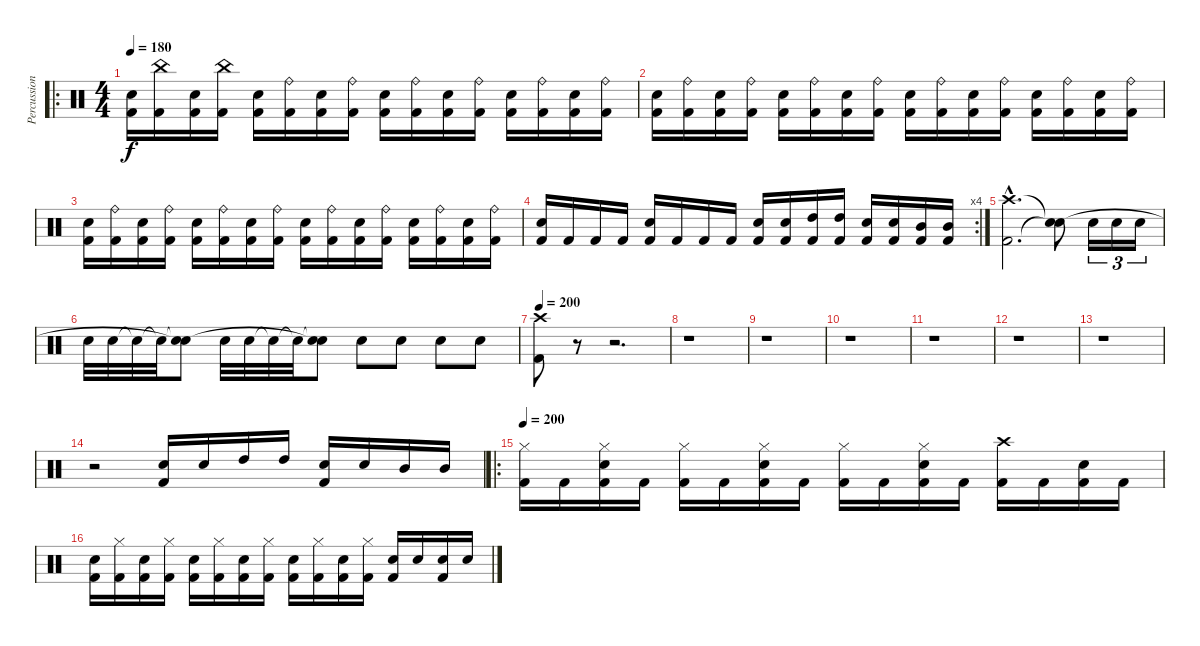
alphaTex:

\track ("Percussion" "Percussion") {instrument percussion}
\staff {score}
\articulation defaults
\ro
\ts (4 4)
\tempo 180
\clef neutral
\ks c
("Snare (hit) 2" "Kick (hit) 2").16{dy f} ("China (hit)" "Kick (hit) 2").16 ("Snare (hit) 2" "Kick (hit) 2").16 ("China (hit)" "Kick (hit) 2").16 ("Snare (hit) 2" "Kick (hit) 2").16 ("Ride (bell)" "Kick (hit) 2").16 ("Snare (hit) 2" "Kick (hit) 2").16 ("Ride (bell)" "Kick (hit) 2").16 ("Snare (hit) 2" "Kick (hit) 2").16 ("Ride (bell)" "Kick (hit) 2").16 ("Snare (hit) 2" "Kick (hit) 2").16 ("Ride (bell)" "Kick (hit) 2").16 ("Snare (hit) 2" "Kick (hit) 2").16 ("Ride (bell)" "Kick (hit) 2").16 ("Snare (hit) 2" "Kick (hit) 2").16 ("Ride (bell)" "Kick (hit) 2").16 |
("Snare (hit) 2" "Kick (hit) 2").16 ("Ride (bell)" "Kick (hit) 2").16 ("Snare (hit) 2" "Kick (hit) 2").16 ("Ride (bell)" "Kick (hit) 2").16 ("Snare (hit) 2" "Kick (hit) 2").16 ("Ride (bell)" "Kick (hit) 2").16 ("Snare (hit) 2" "Kick (hit) 2").16 ("Ride (bell)" "Kick (hit) 2").16 ("Snare (hit) 2" "Kick (hit) 2").16 ("Ride (bell)" "Kick (hit) 2").16 ("Snare (hit) 2" "Kick (hit) 2").16 ("Ride (bell)" "Kick (hit) 2").16 ("Snare (hit) 2" "Kick (hit) 2").16 ("Ride (bell)" "Kick (hit) 2").16 ("Snare (hit) 2" "Kick (hit) 2").16 ("Ride (bell)" "Kick (hit) 2").16 |
("Snare (hit) 2" "Kick (hit) 2").16 ("Ride (bell)" "Kick (hit) 2").16 ("Snare (hit) 2" "Kick (hit) 2").16 ("Ride (bell)" "Kick (hit) 2").16 ("Snare (hit) 2" "Kick (hit) 2").16 ("Ride (bell)" "Kick (hit) 2").16 ("Snare (hit) 2" "Kick (hit) 2").16 ("Ride (bell)" "Kick (hit) 2").16 ("Snare (hit) 2" "Kick (hit) 2").16 ("Ride (bell)" "Kick (hit) 2").16 ("Snare (hit) 2" "Kick (hit) 2").16 ("Ride (bell)" "Kick (hit) 2").16 ("Snare (hit) 2" "Kick (hit) 2").16 ("Ride (bell)" "Kick (hit) 2").16 ("Snare (hit) 2" "Kick (hit) 2").16 ("Ride (bell)" "Kick (hit) 2").16 |
\rc 4
("Snare (hit) 2" "Kick (hit) 2").16 "Kick (hit) 2".16 "Kick (hit) 2".16 "Kick (hit) 2".16 ("Snare (hit) 2" "Kick (hit) 2").16 "Kick (hit) 2".16 "Kick (hit) 2".16 "Kick (hit) 2".16 ("Snare (hit) 2" "Kick (hit) 2").16 ("Snare (hit) 2" "Kick (hit) 2").16 ("High Tom (hit)" "Kick (hit) 2").16 ("High Tom (hit)" "Kick (hit) 2").16 ("Snare (hit) 2" "Kick (hit) 2").16 ("Snare (hit) 2" "Kick (hit) 2").16 ("Mid Tom (hit)" "Kick (hit) 2").16 ("Mid Tom (hit)" "Kick (hit) 2").16 |
("Crash high (hit)"{hac} "Kick (hit) 2"{hac}).2{d} ("Snare (hit)"{t} "Snare (hit)"{t}).8 "Snare (hit) 2".16{tu (3 2)} "Snare (hit) 2".16{tu (3 2)} "Snare (hit) 2".16{tu (3 2)} |
"Snare (hit) 2".32 "Snare (hit) 2".32 "Snare (hit)"{t}.32 "Snare (hit)"{t}.32 ("Snare (hit)"{t} "Snare (hit)"{t}).8 "Snare (hit) 2".32 "Snare (hit) 2".32 "Snare (hit)"{t}.32 "Snare (hit)"{t}.32 ("Snare (hit)"{t} "Snare (hit)"{t}).8 "Snare (hit) 2".8 "Snare (hit) 2".8 "Snare (hit) 2".8 "Snare (hit) 2".8 |
\tempo 200
("Kick (hit) 2" "Crash high (hit)").8 r.8 r.2{d} |
r.1 |
r.1 |
r.1 |
r.1 |
r.1 |
r.1 |
r.2 ("Kick (hit) 2" "Snare (hit) 2").16 "Snare (hit) 2".16 "High Tom (hit)".16 "High Tom (hit)".16 ("Kick (hit) 2" "Snare (hit) 2").16 "Snare (hit) 2".16 "Mid Tom (hit)".16 "Mid Tom (hit)".16 |
\ro
\tempo 200
("Hi-Hat (closed)" "Kick (hit) 2").16 "Kick (hit) 2".16 ("Hi-Hat (closed)" "Snare (hit) 2" "Kick (hit) 2").16 "Kick (hit) 2".16 ("Hi-Hat (closed)" "Kick (hit) 2").16 "Kick (hit) 2".16 ("Hi-Hat (closed)" "Snare (hit) 2" "Kick (hit) 2").16 "Kick (hit) 2".16 ("Hi-Hat (closed)" "Kick (hit) 2").16 "Kick (hit) 2".16 ("Hi-Hat (closed)" "Snare (hit) 2" "Kick (hit) 2").16 "Kick (hit) 2".16 ("Crash high (hit)" "Kick (hit) 2").16 "Kick (hit) 2".16 ("Snare (hit) 2" "Kick (hit) 2").16 "Kick (hit) 2".16 |
("Snare (hit) 2" "Kick (hit) 2").16 ("Hi-Hat (closed)" "Kick (hit) 2").16 ("Snare (hit) 2" "Kick (hit) 2").16 ("Hi-Hat (closed)" "Kick (hit) 2").16 ("Snare (hit) 2" "Kick (hit) 2").16 ("Hi-Hat (closed)" "Kick (hit) 2").16 ("Snare (hit) 2" "Kick (hit) 2").16 ("Hi-Hat (closed)" "Kick (hit) 2").16 ("Snare (hit) 2" "Kick (hit) 2").16 ("Hi-Hat (closed)" "Kick (hit) 2").16 ("Snare (hit) 2" "Kick (hit) 2").16 ("Hi-Hat (closed)" "Kick (hit) 2").16 ("Snare (hit) 2" "Kick (hit) 2").16 "Snare (hit) 2".16 ("Snare (hit) 2" "Kick (hit) 2").16 "Snare (hit) 2".16
